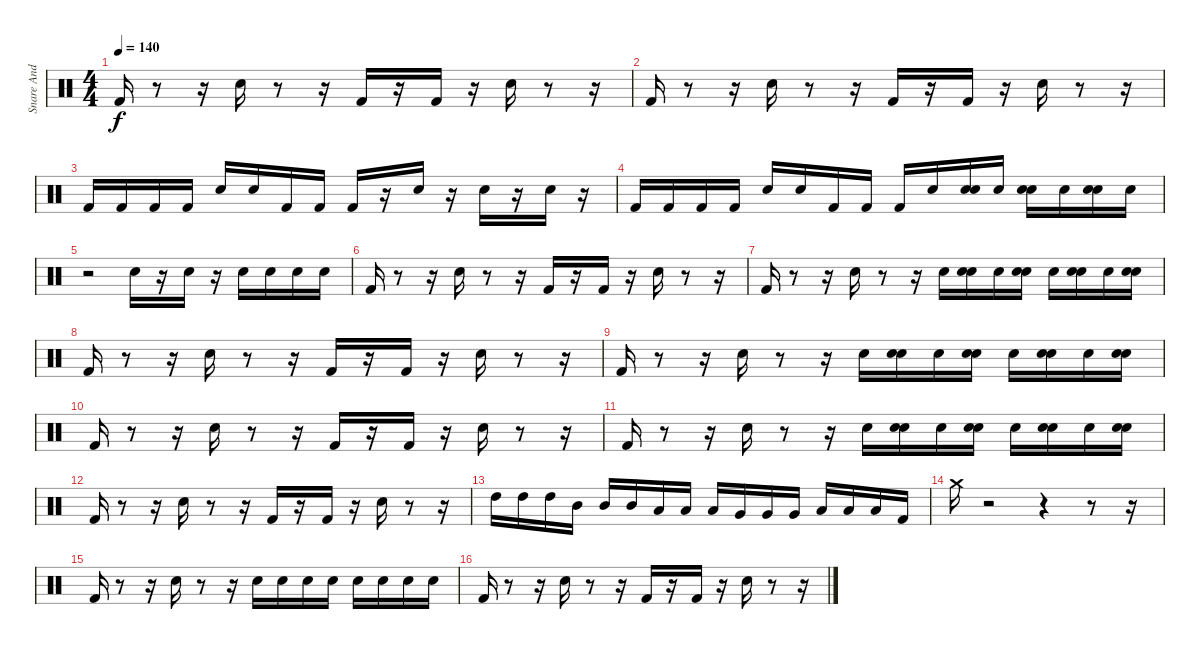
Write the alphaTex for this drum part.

\track ("Snare And Bass Drums" "Snare And ") {instrument percussion}
\staff {score}
\articulation defaults
\ts (4 4)
\tempo 140
\clef neutral
\ks c "Kick (hit) 2".16{dy f}
r.8 r.16 "Snare (hit) 2".16 r.8 r.16 "Kick (hit) 2".16 r.16 "Kick (hit) 2".16 r.16 "Snare (hit) 2".16 r.8 r.16 |
"Kick (hit) 2".16 r.8 r.16 "Snare (hit) 2".16 r.8 r.16 "Kick (hit) 2".16 r.16 "Kick (hit) 2".16 r.16 "Snare (hit) 2".16 r.8 r.16 |
"Kick (hit) 2".16 "Kick (hit) 2".16 "Kick (hit) 2".16 "Kick (hit) 2".16 "Snare (hit) 2".16 "Snare (hit) 2".16 "Kick (hit) 2".16 "Kick (hit) 2".16 "Kick (hit) 2".16 r.16 "Snare (hit) 2".16 r.16 "Snare (hit) 2".16 r.16 "Snare (hit) 2".16 r.16 |
"Kick (hit) 2".16 "Kick (hit) 2".16 "Kick (hit) 2".16 "Kick (hit) 2".16 "Snare (hit) 2".16 "Snare (hit) 2".16 "Kick (hit) 2".16 "Kick (hit) 2".16 "Kick (hit) 2".16 "Snare (hit) 2".16 ("Snare (hit) 2" "Electric Snare (hit)").16 "Snare (hit) 2".16 ("Snare (hit) 2" "Electric Snare (hit)").16 "Snare (hit) 2".16 ("Snare (hit) 2" "Electric Snare (hit)").16 "Snare (hit) 2".16 |
r.2 "Snare (hit) 2".16 r.16 "Snare (hit) 2".16 r.16 "Snare (hit) 2".16 "Snare (hit) 2".16 "Snare (hit) 2".16 "Snare (hit) 2".16 |
"Kick (hit) 2".16 r.8 r.16 "Snare (hit) 2".16 r.8 r.16 "Kick (hit) 2".16 r.16 "Kick (hit) 2".16 r.16 "Snare (hit) 2".16 r.8 r.16 |
"Kick (hit) 2".16 r.8 r.16 "Snare (hit) 2".16 r.8 r.16 "Snare (hit) 2".16 ("Snare (hit) 2" "Electric Snare (hit)").16 "Snare (hit) 2".16 ("Snare (hit) 2" "Electric Snare (hit)").16 "Snare (hit) 2".16 ("Snare (hit) 2" "Electric Snare (hit)").16 "Snare (hit) 2".16 ("Snare (hit) 2" "Electric Snare (hit)").16 |
"Kick (hit) 2".16 r.8 r.16 "Snare (hit) 2".16 r.8 r.16 "Kick (hit) 2".16 r.16 "Kick (hit) 2".16 r.16 "Snare (hit) 2".16 r.8 r.16 |
"Kick (hit) 2".16 r.8 r.16 "Snare (hit) 2".16 r.8 r.16 "Snare (hit) 2".16 ("Snare (hit) 2" "Electric Snare (hit)").16 "Snare (hit) 2".16 ("Snare (hit) 2" "Electric Snare (hit)").16 "Snare (hit) 2".16 ("Snare (hit) 2" "Electric Snare (hit)").16 "Snare (hit) 2".16 ("Snare (hit) 2" "Electric Snare (hit)").16 |
"Kick (hit) 2".16 r.8 r.16 "Snare (hit) 2".16 r.8 r.16 "Kick (hit) 2".16 r.16 "Kick (hit) 2".16 r.16 "Snare (hit) 2".16 r.8 r.16 |
"Kick (hit) 2".16 r.8 r.16 "Snare (hit) 2".16 r.8 r.16 "Snare (hit) 2".16 ("Snare (hit) 2" "Electric Snare (hit)").16 "Snare (hit) 2".16 ("Snare (hit) 2" "Electric Snare (hit)").16 "Snare (hit) 2".16 ("Snare (hit) 2" "Electric Snare (hit)").16 "Snare (hit) 2".16 ("Snare (hit) 2" "Electric Snare (hit)").16 |
"Kick (hit) 2".16 r.8 r.16 "Snare (hit) 2".16 r.8 r.16 "Kick (hit) 2".16 r.16 "Kick (hit) 2".16 r.16 "Snare (hit) 2".16 r.8 r.16 |
"High Tom (hit)".16 "High Tom (hit)".16 "High Tom (hit)".16 "Mid Tom (hit)".16 "Mid Tom (hit)".16 "Mid Tom (hit)".16 "Low Tom (hit)".16 "Low Tom (hit)".16 "Low Tom (hit)".16 "Very Low Tom (hit)".16 "Very Low Tom (hit)".16 "Very Low Tom (hit)".16 "Low Floor Tom (hit)".16 "Low Floor Tom (hit)".16 "Low Floor Tom (hit)".16 "Kick (hit) 2".16 |
"Crash medium (hit)".16 r.2 r.4 r.8 r.16 |
"Kick (hit) 2".16 r.8 r.16 "Snare (hit) 2".16 r.8 r.16 "Snare (hit) 2".16 "Snare (hit) 2".16 "Snare (hit) 2".16 "Snare (hit) 2".16 "Snare (hit) 2".16 "Snare (hit) 2".16 "Snare (hit) 2".16 "Snare (hit) 2".16 |
"Kick (hit) 2".16 r.8 r.16 "Snare (hit) 2".16 r.8 r.16 "Kick (hit) 2".16 r.16 "Kick (hit) 2".16 r.16 "Snare (hit) 2".16 r.8 r.16
